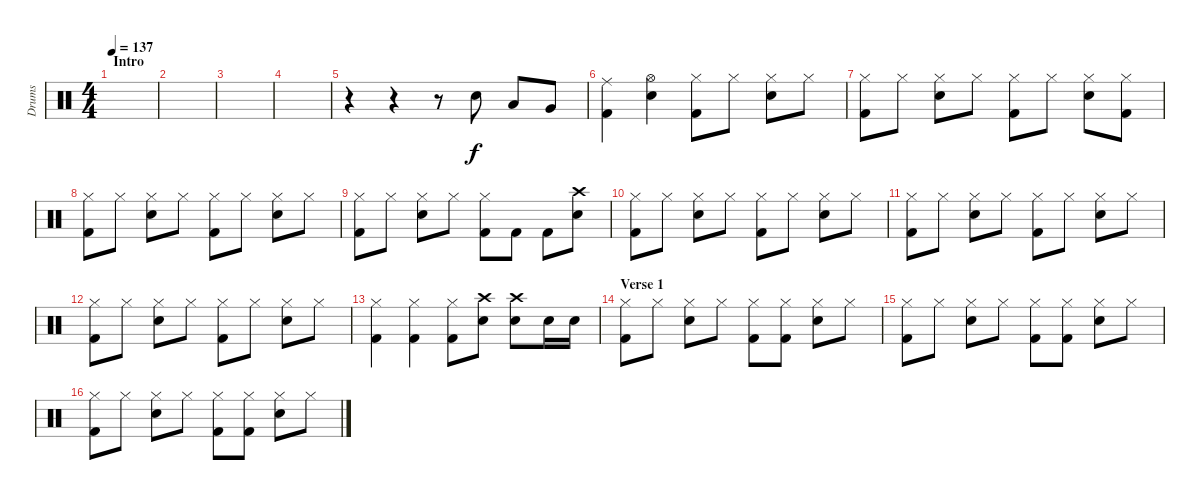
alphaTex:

\track ("Drums" "Drums") {instrument percussion}
\staff {score}
\articulation defaults
\ts (4 4)
\section ("" "Intro")
\tempo 137
\clef neutral
\ks c
|
|
|
|
r.4 r.4 r.8 "Snare (hit) 2".8 "Low Tom (hit)".8 "Very Low Tom (hit)".8 |
("Ride (middle)" "Kick (hit) 2").4 ("Hi-Hat (open)" "Snare (hit) 2").4 ("Hi-Hat (closed)" "Kick (hit) 2").8 "Hi-Hat (closed)".8 ("Hi-Hat (closed)" "Snare (hit) 2").8 "Hi-Hat (closed)".8 |
("Hi-Hat (closed)" "Kick (hit) 2").8 "Hi-Hat (closed)".8 ("Hi-Hat (closed)" "Snare (hit) 2").8 "Hi-Hat (closed)".8 ("Hi-Hat (closed)" "Kick (hit) 2").8 "Hi-Hat (closed)".8 ("Hi-Hat (closed)" "Snare (hit) 2").8 ("Hi-Hat (closed)" "Kick (hit) 2").8 |
("Hi-Hat (closed)" "Kick (hit) 2").8 "Hi-Hat (closed)".8 ("Hi-Hat (closed)" "Snare (hit) 2").8 "Hi-Hat (closed)".8 ("Hi-Hat (closed)" "Kick (hit) 2").8 "Hi-Hat (closed)".8 ("Hi-Hat (closed)" "Snare (hit) 2").8 "Hi-Hat (closed)".8 |
("Hi-Hat (closed)" "Kick (hit) 2").8 "Hi-Hat (closed)".8 ("Hi-Hat (closed)" "Snare (hit) 2").8 "Hi-Hat (closed)".8 ("Hi-Hat (closed)" "Kick (hit) 2").8 "Kick (hit) 2".8 "Kick (hit) 2".8 ("Crash high (hit)" "Snare (hit) 2").8 |
("Hi-Hat (closed)" "Kick (hit) 2").8 "Hi-Hat (closed)".8 ("Hi-Hat (closed)" "Snare (hit) 2").8 "Hi-Hat (closed)".8 ("Hi-Hat (closed)" "Kick (hit) 2").8 "Hi-Hat (closed)".8 ("Hi-Hat (closed)" "Snare (hit) 2").8 "Hi-Hat (closed)".8 |
("Hi-Hat (closed)" "Kick (hit) 2").8 "Hi-Hat (closed)".8 ("Hi-Hat (closed)" "Snare (hit) 2").8 "Hi-Hat (closed)".8 ("Hi-Hat (closed)" "Kick (hit) 2").8 "Hi-Hat (closed)".8 ("Hi-Hat (closed)" "Snare (hit) 2").8 "Hi-Hat (closed)".8 |
("Hi-Hat (closed)" "Kick (hit) 2").8 "Hi-Hat (closed)".8 ("Hi-Hat (closed)" "Snare (hit) 2").8 "Hi-Hat (closed)".8 ("Hi-Hat (closed)" "Kick (hit) 2").8 "Hi-Hat (closed)".8 ("Hi-Hat (closed)" "Snare (hit) 2").8 "Hi-Hat (closed)".8 |
("Hi-Hat (closed)" "Kick (hit) 2").4 ("Hi-Hat (closed)" "Kick (hit) 2").4 ("Hi-Hat (closed)" "Kick (hit) 2").8 ("Crash high (hit)" "Snare (hit) 2").8 ("Crash high (hit)" "Snare (hit) 2").8 "Snare (hit) 2".16 "Snare (hit) 2".16 |
\section ("" "Verse 1")
("Hi-Hat (closed)" "Kick (hit) 2").8 "Hi-Hat (closed)".8 ("Hi-Hat (closed)" "Snare (hit) 2").8 "Hi-Hat (closed)".8 ("Hi-Hat (closed)" "Kick (hit) 2").8 ("Hi-Hat (closed)" "Kick (hit) 2").8 ("Hi-Hat (closed)" "Snare (hit) 2").8 "Hi-Hat (closed)".8 |
("Hi-Hat (closed)" "Kick (hit) 2").8 "Hi-Hat (closed)".8 ("Hi-Hat (closed)" "Snare (hit) 2").8 "Hi-Hat (closed)".8 ("Hi-Hat (closed)" "Kick (hit) 2").8 ("Hi-Hat (closed)" "Kick (hit) 2").8 ("Hi-Hat (closed)" "Snare (hit) 2").8 "Hi-Hat (closed)".8 |
("Hi-Hat (closed)" "Kick (hit) 2").8 "Hi-Hat (closed)".8 ("Hi-Hat (closed)" "Snare (hit) 2").8 "Hi-Hat (closed)".8 ("Hi-Hat (closed)" "Kick (hit) 2").8 ("Hi-Hat (closed)" "Kick (hit) 2").8 ("Hi-Hat (closed)" "Snare (hit) 2").8 "Hi-Hat (closed)".8
